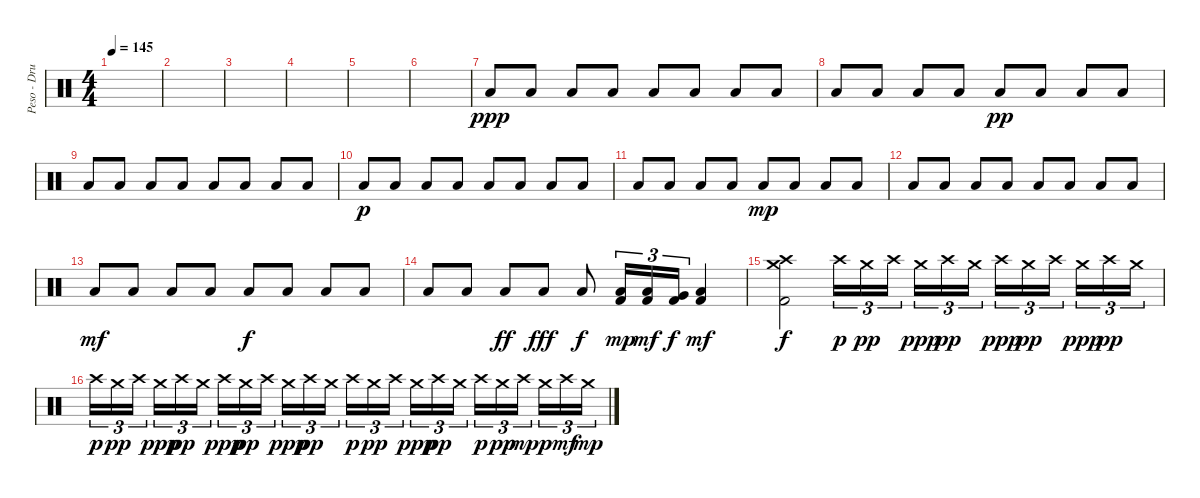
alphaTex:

\track ("Peso - Drums" "Peso - Dru") {instrument percussion}
\staff {score}
\articulation defaults
\ts (4 4)
\tempo 145
\clef neutral
\ks c
|
|
|
|
|
|
"Low Floor Tom (hit)".8{dy ppp} "Low Floor Tom (hit)".8 "Low Floor Tom (hit)".8 "Low Floor Tom (hit)".8 "Low Floor Tom (hit)".8 "Low Floor Tom (hit)".8 "Low Floor Tom (hit)".8 "Low Floor Tom (hit)".8 |
"Low Floor Tom (hit)".8 "Low Floor Tom (hit)".8 "Low Floor Tom (hit)".8 "Low Floor Tom (hit)".8 "Low Floor Tom (hit)".8{dy pp} "Low Floor Tom (hit)".8 "Low Floor Tom (hit)".8 "Low Floor Tom (hit)".8 |
"Low Floor Tom (hit)".8 "Low Floor Tom (hit)".8 "Low Floor Tom (hit)".8 "Low Floor Tom (hit)".8 "Low Floor Tom (hit)".8 "Low Floor Tom (hit)".8 "Low Floor Tom (hit)".8 "Low Floor Tom (hit)".8 |
"Low Floor Tom (hit)".8{dy p} "Low Floor Tom (hit)".8 "Low Floor Tom (hit)".8 "Low Floor Tom (hit)".8 "Low Floor Tom (hit)".8 "Low Floor Tom (hit)".8 "Low Floor Tom (hit)".8 "Low Floor Tom (hit)".8 |
"Low Floor Tom (hit)".8 "Low Floor Tom (hit)".8 "Low Floor Tom (hit)".8 "Low Floor Tom (hit)".8 "Low Floor Tom (hit)".8{dy mp} "Low Floor Tom (hit)".8 "Low Floor Tom (hit)".8 "Low Floor Tom (hit)".8 |
"Low Floor Tom (hit)".8 "Low Floor Tom (hit)".8 "Low Floor Tom (hit)".8 "Low Floor Tom (hit)".8 "Low Floor Tom (hit)".8 "Low Floor Tom (hit)".8 "Low Floor Tom (hit)".8 "Low Floor Tom (hit)".8 |
"Low Floor Tom (hit)".8{dy mf} "Low Floor Tom (hit)".8 "Low Floor Tom (hit)".8 "Low Floor Tom (hit)".8 "Low Floor Tom (hit)".8{dy f} "Low Floor Tom (hit)".8 "Low Floor Tom (hit)".8 "Low Floor Tom (hit)".8 |
"Low Floor Tom (hit)".8 "Low Floor Tom (hit)".8 "Low Floor Tom (hit)".8{dy ff} "Low Floor Tom (hit)".8{dy fff} "Low Floor Tom (hit)".8{dy f} ("Low Floor Tom (hit)" "Kick (hit) 2").16{tu (3 2) dy mp} ("Low Floor Tom (hit)" "Kick (hit) 2").16{tu (3 2) dy mf} ("Very Low Tom (hit)" "Kick (hit) 2").16{tu (3 2) dy f} ("Low Tom (hit)" "Kick (hit) 2").4{dy mf} |
("Crash medium (hit)" "Crash high (hit)" "Kick (hit) 2").2{dy f} "Crash high (hit)".16{tu (3 2) dy p} "Crash medium (hit)".16{tu (3 2) dy pp} "Crash high (hit)".16{tu (3 2) beam splitsecondary} "Crash medium (hit)".16{tu (3 2) dy ppp} "Crash high (hit)".16{tu (3 2) dy pp} "Crash medium (hit)".16{tu (3 2)} "Crash high (hit)".16{tu (3 2) dy ppp} "Crash medium (hit)".16{tu (3 2) dy pp} "Crash high (hit)".16{tu (3 2) beam splitsecondary} "Crash medium (hit)".16{tu (3 2) dy ppp} "Crash high (hit)".16{tu (3 2) dy pp} "Crash medium (hit)".16{tu (3 2)} |
"Crash high (hit)".16{tu (3 2) dy p} "Crash medium (hit)".16{tu (3 2) dy pp} "Crash high (hit)".16{tu (3 2) beam splitsecondary} "Crash medium (hit)".16{tu (3 2) dy ppp} "Crash high (hit)".16{tu (3 2) dy pp} "Crash medium (hit)".16{tu (3 2)} "Crash high (hit)".16{tu (3 2) dy ppp} "Crash medium (hit)".16{tu (3 2) dy pp} "Crash high (hit)".16{tu (3 2) beam splitsecondary} "Crash medium (hit)".16{tu (3 2) dy ppp} "Crash high (hit)".16{tu (3 2) dy pp} "Crash medium (hit)".16{tu (3 2)} "Crash high (hit)".16{tu (3 2) dy p} "Crash medium (hit)".16{tu (3 2) dy pp} "Crash high (hit)".16{tu (3 2) beam splitsecondary} "Crash medium (hit)".16{tu (3 2) dy ppp} "Crash high (hit)".16{tu (3 2) dy pp} "Crash medium (hit)".16{tu (3 2)} "Crash high (hit)".16{tu (3 2) dy p} "Crash medium (hit)".16{tu (3 2) dy pp} "Crash high (hit)".16{tu (3 2) dy mp beam splitsecondary} "Crash medium (hit)".16{tu (3 2) dy p} "Crash high (hit)".16{tu (3 2) dy mf} "Crash medium (hit)".16{tu (3 2) dy mp}
